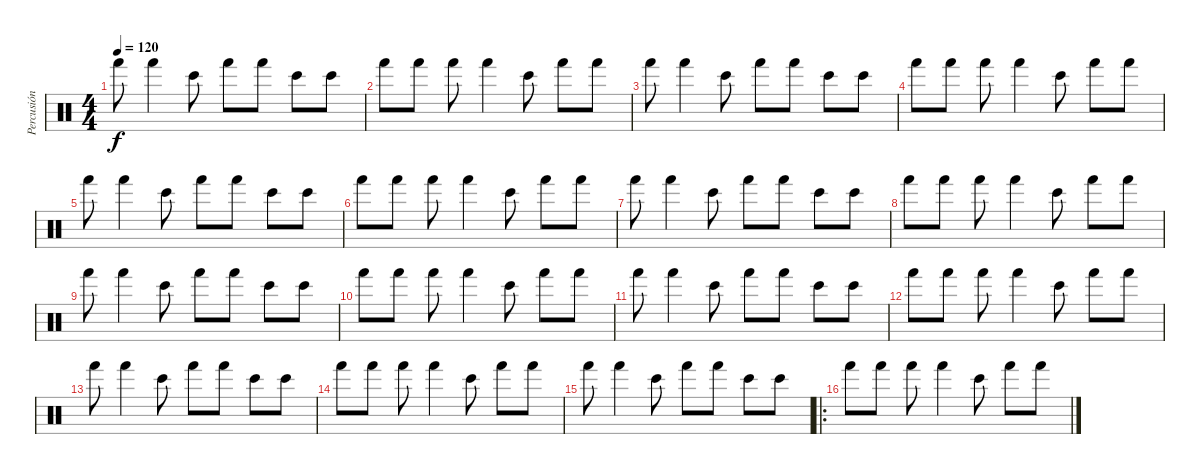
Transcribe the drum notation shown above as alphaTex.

\track ("Percusión" "Percusión") {instrument percussion}
\staff
\articulation defaults
\ts (4 4)
\tempo 120
\clef neutral
\ks c "Hand (hit)".8{dy f} "Hand (hit)".4 "Bongo High (hit)".8 "Hand (hit)".8 "Hand (hit)".8 "Bongo High (hit)".8 "Bongo High (hit)".8
|
"Hand (hit)".8 "Hand (hit)".8 "Hand (hit)".8 "Hand (hit)".4 "Bongo High (hit)".8 "Hand (hit)".8 "Hand (hit)".8 |
"Hand (hit)".8 "Hand (hit)".4 "Bongo High (hit)".8 "Hand (hit)".8 "Hand (hit)".8 "Bongo High (hit)".8 "Bongo High (hit)".8 |
"Hand (hit)".8 "Hand (hit)".8 "Hand (hit)".8 "Hand (hit)".4 "Bongo High (hit)".8 "Hand (hit)".8 "Hand (hit)".8 |
"Hand (hit)".8 "Hand (hit)".4 "Bongo High (hit)".8 "Hand (hit)".8 "Hand (hit)".8 "Bongo High (hit)".8 "Bongo High (hit)".8 |
"Hand (hit)".8 "Hand (hit)".8 "Hand (hit)".8 "Hand (hit)".4 "Bongo High (hit)".8 "Hand (hit)".8 "Hand (hit)".8 |
"Hand (hit)".8 "Hand (hit)".4 "Bongo High (hit)".8 "Hand (hit)".8 "Hand (hit)".8 "Bongo High (hit)".8 "Bongo High (hit)".8 |
"Hand (hit)".8 "Hand (hit)".8 "Hand (hit)".8 "Hand (hit)".4 "Bongo High (hit)".8 "Hand (hit)".8 "Hand (hit)".8 |
"Hand (hit)".8 "Hand (hit)".4 "Bongo High (hit)".8 "Hand (hit)".8 "Hand (hit)".8 "Bongo High (hit)".8 "Bongo High (hit)".8 |
"Hand (hit)".8 "Hand (hit)".8 "Hand (hit)".8 "Hand (hit)".4 "Bongo High (hit)".8 "Hand (hit)".8 "Hand (hit)".8 |
"Hand (hit)".8 "Hand (hit)".4 "Bongo High (hit)".8 "Hand (hit)".8 "Hand (hit)".8 "Bongo High (hit)".8 "Bongo High (hit)".8 |
"Hand (hit)".8 "Hand (hit)".8 "Hand (hit)".8 "Hand (hit)".4 "Bongo High (hit)".8 "Hand (hit)".8 "Hand (hit)".8 |
"Hand (hit)".8 "Hand (hit)".4 "Bongo High (hit)".8 "Hand (hit)".8 "Hand (hit)".8 "Bongo High (hit)".8 "Bongo High (hit)".8 |
"Hand (hit)".8 "Hand (hit)".8 "Hand (hit)".8 "Hand (hit)".4 "Bongo High (hit)".8 "Hand (hit)".8 "Hand (hit)".8 |
"Hand (hit)".8 "Hand (hit)".4 "Bongo High (hit)".8 "Hand (hit)".8 "Hand (hit)".8 "Bongo High (hit)".8 "Bongo High (hit)".8 |
\ro "Hand (hit)".8 "Hand (hit)".8 "Hand (hit)".8 "Hand (hit)".4 "Bongo High (hit)".8 "Hand (hit)".8 "Hand (hit)".8
